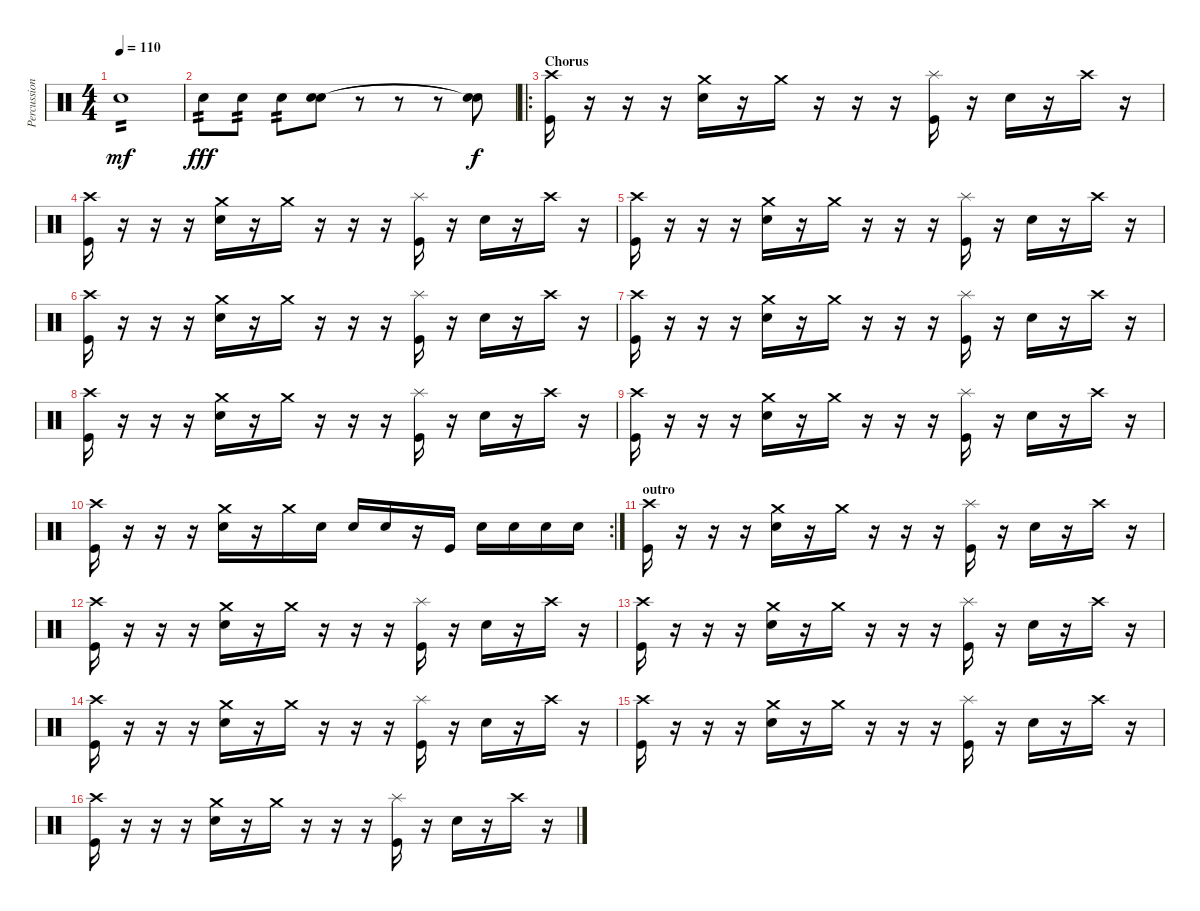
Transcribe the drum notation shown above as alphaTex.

\track ("Percussions" "Percussion") {instrument percussion}
\staff {score}
\articulation defaults
\ts (4 4)
\tempo 110
\clef neutral
\ks c "Electric Snare (hit)".1{tp 2 dy mf}
|
"Electric Snare (hit)".8{tp 2 dy fff} "Electric Snare (hit)".8{tp 2} "Electric Snare (hit)".8{tp 2} ("Electric Snare (hit)" "Electric Snare (hit)").8 r.8 r.8 r.8 ("Snare (hit)"{t} "Electric Snare (hit)"{t}).8{dy f} |
\ro
\section ("" "Chorus")
("Crash high (hit)" "Kick (hit)").16 r.16 r.16 r.16 ("Crash medium (hit)" "Electric Snare (hit)").16 r.16 "Crash medium (hit)".16 r.16 r.16 r.16 ("Splash (hit)" "Kick (hit)").16 r.16 "Electric Snare (hit)".16 r.16 "Crash high (hit)".16 r.16 |
("Crash high (hit)" "Kick (hit)").16 r.16 r.16 r.16 ("Crash medium (hit)" "Electric Snare (hit)").16 r.16 "Crash medium (hit)".16 r.16 r.16 r.16 ("Splash (hit)" "Kick (hit)").16 r.16 "Electric Snare (hit)".16 r.16 "Crash high (hit)".16 r.16 |
("Crash high (hit)" "Kick (hit)").16 r.16 r.16 r.16 ("Crash medium (hit)" "Electric Snare (hit)").16 r.16 "Crash medium (hit)".16 r.16 r.16 r.16 ("Splash (hit)" "Kick (hit)").16 r.16 "Electric Snare (hit)".16 r.16 "Crash high (hit)".16 r.16 |
("Crash high (hit)" "Kick (hit)").16 r.16 r.16 r.16 ("Crash medium (hit)" "Electric Snare (hit)").16 r.16 "Crash medium (hit)".16 r.16 r.16 r.16 ("Splash (hit)" "Kick (hit)").16 r.16 "Electric Snare (hit)".16 r.16 "Crash high (hit)".16 r.16 |
("Crash high (hit)" "Kick (hit)").16 r.16 r.16 r.16 ("Crash medium (hit)" "Electric Snare (hit)").16 r.16 "Crash medium (hit)".16 r.16 r.16 r.16 ("Splash (hit)" "Kick (hit)").16 r.16 "Electric Snare (hit)".16 r.16 "Crash high (hit)".16 r.16 |
("Crash high (hit)" "Kick (hit)").16 r.16 r.16 r.16 ("Crash medium (hit)" "Electric Snare (hit)").16 r.16 "Crash medium (hit)".16 r.16 r.16 r.16 ("Splash (hit)" "Kick (hit)").16 r.16 "Electric Snare (hit)".16 r.16 "Crash high (hit)".16 r.16 |
("Crash high (hit)" "Kick (hit)").16 r.16 r.16 r.16 ("Crash medium (hit)" "Electric Snare (hit)").16 r.16 "Crash medium (hit)".16 r.16 r.16 r.16 ("Splash (hit)" "Kick (hit)").16 r.16 "Electric Snare (hit)".16 r.16 "Crash high (hit)".16 r.16 |
\rc 2
("Crash high (hit)" "Kick (hit)").16 r.16 r.16 r.16 ("Crash medium (hit)" "Electric Snare (hit)").16 r.16 "Crash medium (hit)".16 "Electric Snare (hit)".16 "Electric Snare (hit)".16 "Electric Snare (hit)".16 r.16 "Kick (hit)".16 "Electric Snare (hit)".16 "Electric Snare (hit)".16 "Electric Snare (hit)".16 "Electric Snare (hit)".16 |
\section ("" "outro")
("Crash high (hit)" "Kick (hit)").16 r.16 r.16 r.16 ("Crash medium (hit)" "Electric Snare (hit)").16 r.16 "Crash medium (hit)".16 r.16 r.16 r.16 ("Splash (hit)" "Kick (hit)").16 r.16 "Electric Snare (hit)".16 r.16 "Crash high (hit)".16 r.16 |
("Crash high (hit)" "Kick (hit)").16 r.16 r.16 r.16 ("Crash medium (hit)" "Electric Snare (hit)").16 r.16 "Crash medium (hit)".16 r.16 r.16 r.16 ("Splash (hit)" "Kick (hit)").16 r.16 "Electric Snare (hit)".16 r.16 "Crash high (hit)".16 r.16 |
("Crash high (hit)" "Kick (hit)").16 r.16 r.16 r.16 ("Crash medium (hit)" "Electric Snare (hit)").16 r.16 "Crash medium (hit)".16 r.16 r.16 r.16 ("Splash (hit)" "Kick (hit)").16 r.16 "Electric Snare (hit)".16 r.16 "Crash high (hit)".16 r.16 |
("Crash high (hit)" "Kick (hit)").16 r.16 r.16 r.16 ("Crash medium (hit)" "Electric Snare (hit)").16 r.16 "Crash medium (hit)".16 r.16 r.16 r.16 ("Splash (hit)" "Kick (hit)").16 r.16 "Electric Snare (hit)".16 r.16 "Crash high (hit)".16 r.16 |
("Crash high (hit)" "Kick (hit)").16 r.16 r.16 r.16 ("Crash medium (hit)" "Electric Snare (hit)").16 r.16 "Crash medium (hit)".16 r.16 r.16 r.16 ("Splash (hit)" "Kick (hit)").16 r.16 "Electric Snare (hit)".16 r.16 "Crash high (hit)".16 r.16 |
("Crash high (hit)" "Kick (hit)").16 r.16 r.16 r.16 ("Crash medium (hit)" "Electric Snare (hit)").16 r.16 "Crash medium (hit)".16 r.16 r.16 r.16 ("Splash (hit)" "Kick (hit)").16 r.16 "Electric Snare (hit)".16 r.16 "Crash high (hit)".16 r.16
